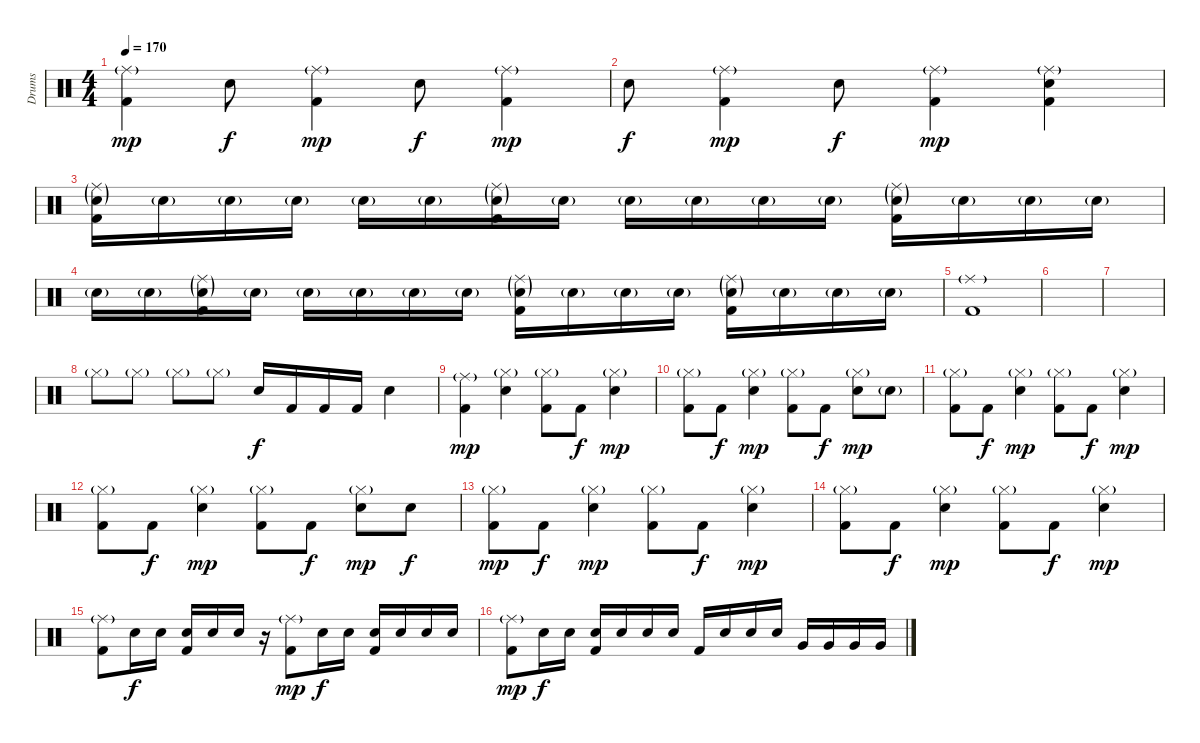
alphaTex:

\track ("Drums" "Drums") {instrument percussion}
\staff {score}
\articulation defaults
\ts (4 4)
\tempo 170
\clef neutral
\ks c
("Ride (middle)"{g} "Kick (hit) 2").4{dy mp} "Electric Snare (hit)".8{dy f} ("Ride (middle)"{g} "Kick (hit) 2").4{dy mp} "Electric Snare (hit)".8{dy f} ("Ride (middle)"{g} "Kick (hit) 2").4{dy mp} |
"Electric Snare (hit)".8{dy f} ("Ride (middle)"{g} "Kick (hit) 2").4{dy mp} "Electric Snare (hit)".8{dy f} ("Ride (middle)"{g} "Kick (hit) 2").4{dy mp} ("Ride (middle)"{g} "Electric Snare (hit)" "Kick (hit) 2").4 |
("Ride (middle)"{g} "Electric Snare (hit)"{g} "Kick (hit) 2").16 "Electric Snare (hit)"{g}.16 "Electric Snare (hit)"{g}.16 "Electric Snare (hit)"{g}.16 "Electric Snare (hit)"{g}.16 "Electric Snare (hit)"{g}.16 ("Ride (middle)"{g} "Electric Snare (hit)"{g} "Kick (hit) 2").16 "Electric Snare (hit)"{g}.16 "Electric Snare (hit)"{g}.16 "Electric Snare (hit)"{g}.16 "Electric Snare (hit)"{g}.16 "Electric Snare (hit)"{g}.16 ("Ride (middle)"{g} "Electric Snare (hit)"{g} "Kick (hit) 2").16 "Electric Snare (hit)"{g}.16 "Electric Snare (hit)"{g}.16 "Electric Snare (hit)"{g}.16 |
"Electric Snare (hit)"{g}.16 "Electric Snare (hit)"{g}.16 ("Ride (middle)"{g} "Electric Snare (hit)"{g} "Kick (hit) 2").16 "Electric Snare (hit)"{g}.16 "Electric Snare (hit)"{g}.16 "Electric Snare (hit)"{g}.16 "Electric Snare (hit)"{g}.16 "Electric Snare (hit)"{g}.16 ("Ride (middle)"{g} "Electric Snare (hit)"{g} "Kick (hit) 2").16 "Electric Snare (hit)"{g}.16 "Electric Snare (hit)"{g}.16 "Electric Snare (hit)"{g}.16 ("Ride (middle)"{g} "Electric Snare (hit)"{g} "Kick (hit) 2").16 "Electric Snare (hit)"{g}.16 "Electric Snare (hit)"{g}.16 "Electric Snare (hit)"{g}.16 |
("Ride (middle)"{g} "Kick (hit) 2").1 |
|
|
"Hi-Hat (closed)"{g}.8 "Hi-Hat (closed)"{g}.8 "Hi-Hat (closed)"{g}.8 "Hi-Hat (closed)"{g}.8 "Electric Snare (hit)".16{dy f} "Kick (hit) 2".16 "Kick (hit) 2".16 "Kick (hit) 2".16 "Electric Snare (hit)".4 |
("Ride (middle)"{g} "Kick (hit) 2").4{dy mp} ("Hi-Hat (closed)"{g} "Electric Snare (hit)").4 ("Hi-Hat (closed)"{g} "Kick (hit) 2").8 "Kick (hit) 2".8{dy f} ("Hi-Hat (closed)"{g} "Electric Snare (hit)").4{dy mp} |
("Hi-Hat (closed)"{g} "Kick (hit) 2").8 "Kick (hit) 2".8{dy f} ("Hi-Hat (closed)"{g} "Electric Snare (hit)").4{dy mp} ("Hi-Hat (closed)"{g} "Kick (hit) 2").8 "Kick (hit) 2".8{dy f} ("Hi-Hat (closed)"{g} "Electric Snare (hit)").8{dy mp} "Electric Snare (hit)"{g}.8 |
("Hi-Hat (closed)"{g} "Kick (hit) 2").8 "Kick (hit) 2".8{dy f} ("Hi-Hat (closed)"{g} "Electric Snare (hit)").4{dy mp} ("Hi-Hat (closed)"{g} "Kick (hit) 2").8 "Kick (hit) 2".8{dy f} ("Hi-Hat (closed)"{g} "Electric Snare (hit)").4{dy mp} |
("Hi-Hat (closed)"{g} "Kick (hit) 2").8 "Kick (hit) 2".8{dy f} ("Hi-Hat (closed)"{g} "Electric Snare (hit)").4{dy mp} ("Hi-Hat (closed)"{g} "Kick (hit) 2").8 "Kick (hit) 2".8{dy f} ("Hi-Hat (closed)"{g} "Electric Snare (hit)").8{dy mp} "Electric Snare (hit)".8{dy f} |
("Hi-Hat (closed)"{g} "Kick (hit) 2").8{dy mp} "Kick (hit) 2".8{dy f} ("Hi-Hat (closed)"{g} "Electric Snare (hit)").4{dy mp} ("Hi-Hat (closed)"{g} "Kick (hit) 2").8 "Kick (hit) 2".8{dy f} ("Hi-Hat (closed)"{g} "Electric Snare (hit)").4{dy mp} |
("Hi-Hat (closed)"{g} "Kick (hit) 2").8 "Kick (hit) 2".8{dy f} ("Hi-Hat (closed)"{g} "Electric Snare (hit)").4{dy mp} ("Hi-Hat (closed)"{g} "Kick (hit) 2").8 "Kick (hit) 2".8{dy f} ("Hi-Hat (closed)"{g} "Electric Snare (hit)").4{dy mp} |
("Ride (middle)"{g} "Kick (hit) 2").8 "Electric Snare (hit)".16{dy f} "Electric Snare (hit)".16 ("Electric Snare (hit)" "Kick (hit) 2").16 "Electric Snare (hit)".16 "Electric Snare (hit)".16 r.16 ("Ride (middle)"{g} "Kick (hit) 2").8{dy mp} "Electric Snare (hit)".16{dy f} "Electric Snare (hit)".16 ("Electric Snare (hit)" "Kick (hit) 2").16 "Electric Snare (hit)".16 "Electric Snare (hit)".16 "Electric Snare (hit)".16 |
("Ride (middle)"{g} "Kick (hit) 2").8{dy mp} "Electric Snare (hit)".16{dy f} "Electric Snare (hit)".16 ("Electric Snare (hit)" "Kick (hit) 2").16 "Electric Snare (hit)".16 "Electric Snare (hit)".16 "Electric Snare (hit)".16 "Kick (hit) 2".16 "Electric Snare (hit)".16 "Electric Snare (hit)".16 "Electric Snare (hit)".16 "Very Low Tom (hit)".16 "Very Low Tom (hit)".16 "Very Low Tom (hit)".16 "Very Low Tom (hit)".16
